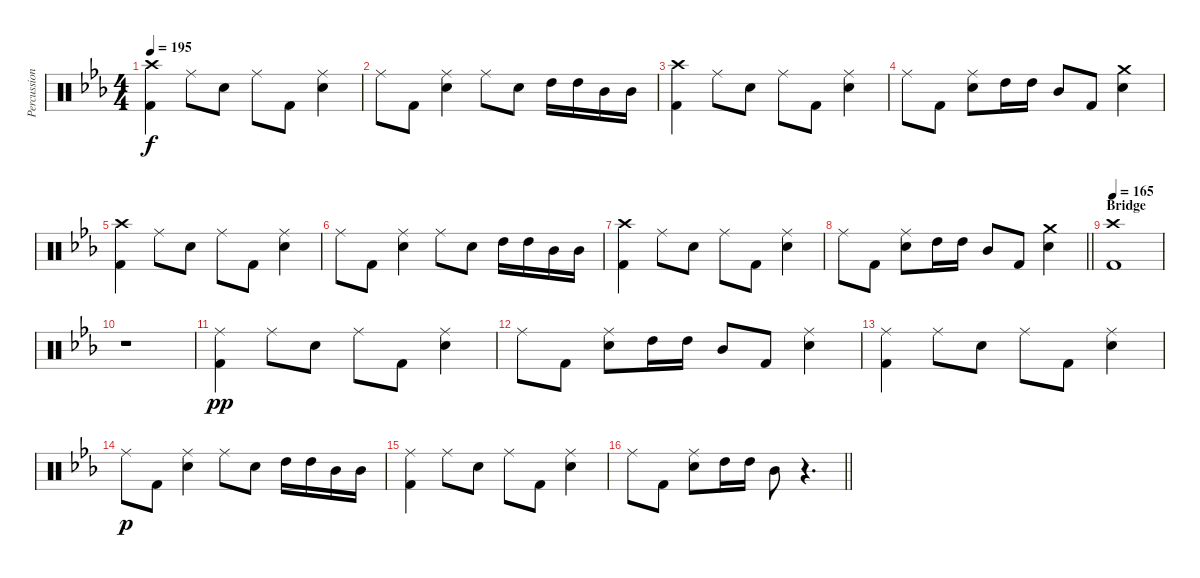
\track ("Percussion" "Percussion") {instrument percussion}
\staff {score}
\articulation defaults
\ts (4 4)
\tempo 195
\clef neutral
\ks eb
("Crash high (hit)" "Kick (hit) 2").4{dy f} "Ride (middle)".8 "Snare (hit) 2".8 "Ride (middle)".8 "Kick (hit) 2".8 ("Ride (middle)" "Snare (hit) 2").4 |
"Ride (middle)".8 "Kick (hit) 2".8 ("Ride (middle)" "Snare (hit) 2").4 "Ride (middle)".8 "Snare (hit) 2".8 "High Tom (hit)".16 "High Tom (hit)".16 "Mid Tom (hit)".16 "Mid Tom (hit)".16 |
("Crash high (hit)" "Kick (hit) 2").4 "Ride (middle)".8 "Snare (hit) 2".8 "Ride (middle)".8 "Kick (hit) 2".8 ("Ride (middle)" "Snare (hit) 2").4 |
"Ride (middle)".8 "Kick (hit) 2".8 ("Ride (middle)" "Snare (hit) 2").8 "High Tom (hit)".16 "High Tom (hit)".16 "Mid Tom (hit)".8 "Kick (hit) 2".8 ("Crash medium (hit)" "Snare (hit) 2").4 |
("Crash high (hit)" "Kick (hit) 2").4 "Ride (middle)".8 "Snare (hit) 2".8 "Ride (middle)".8 "Kick (hit) 2".8 ("Ride (middle)" "Snare (hit) 2").4 |
"Ride (middle)".8 "Kick (hit) 2".8 ("Ride (middle)" "Snare (hit) 2").4 "Ride (middle)".8 "Snare (hit) 2".8 "High Tom (hit)".16 "High Tom (hit)".16 "Mid Tom (hit)".16 "Mid Tom (hit)".16 |
("Crash high (hit)" "Kick (hit) 2").4 "Ride (middle)".8 "Snare (hit) 2".8 "Ride (middle)".8 "Kick (hit) 2".8 ("Ride (middle)" "Snare (hit) 2").4 |
\barLineRight lightlight "Ride (middle)".8 "Kick (hit) 2".8
("Ride (middle)" "Snare (hit) 2").8 "High Tom (hit)".16 "High Tom (hit)".16 "Mid Tom (hit)".8 "Kick (hit) 2".8 ("Crash medium (hit)" "Snare (hit) 2").4 |
\section ("" "Bridge")
\tempo 165
("Crash high (hit)" "Kick (hit) 2").1 |
r.1 |
("Ride (middle)" "Kick (hit) 2").4{dy pp} "Ride (middle)".8 "Snare (hit) 2".8 "Ride (middle)".8 "Kick (hit) 2".8 ("Ride (middle)" "Snare (hit) 2").4 |
"Ride (middle)".8 "Kick (hit) 2".8 ("Ride (middle)" "Snare (hit) 2").8 "High Tom (hit)".16 "High Tom (hit)".16 "Mid Tom (hit)".8 "Kick (hit) 2".8 ("Ride (middle)" "Snare (hit) 2").4 |
("Ride (middle)" "Kick (hit) 2").4 "Ride (middle)".8 "Snare (hit) 2".8 "Ride (middle)".8 "Kick (hit) 2".8 ("Ride (middle)" "Snare (hit) 2").4 |
"Ride (middle)".8{dy p} "Kick (hit) 2".8 ("Ride (middle)" "Snare (hit) 2").4 "Ride (middle)".8 "Snare (hit) 2".8 "High Tom (hit)".16 "High Tom (hit)".16 "Mid Tom (hit)".16 "Mid Tom (hit)".16 |
("Ride (middle)" "Kick (hit) 2").4 "Ride (middle)".8 "Snare (hit) 2".8 "Ride (middle)".8 "Kick (hit) 2".8 ("Ride (middle)" "Snare (hit) 2").4 |
\barLineRight lightlight "Ride (middle)".8 "Kick (hit) 2".8
("Ride (middle)" "Snare (hit) 2").8 "High Tom (hit)".16 "High Tom (hit)".16 "Mid Tom (hit)".8 r.4{d}
